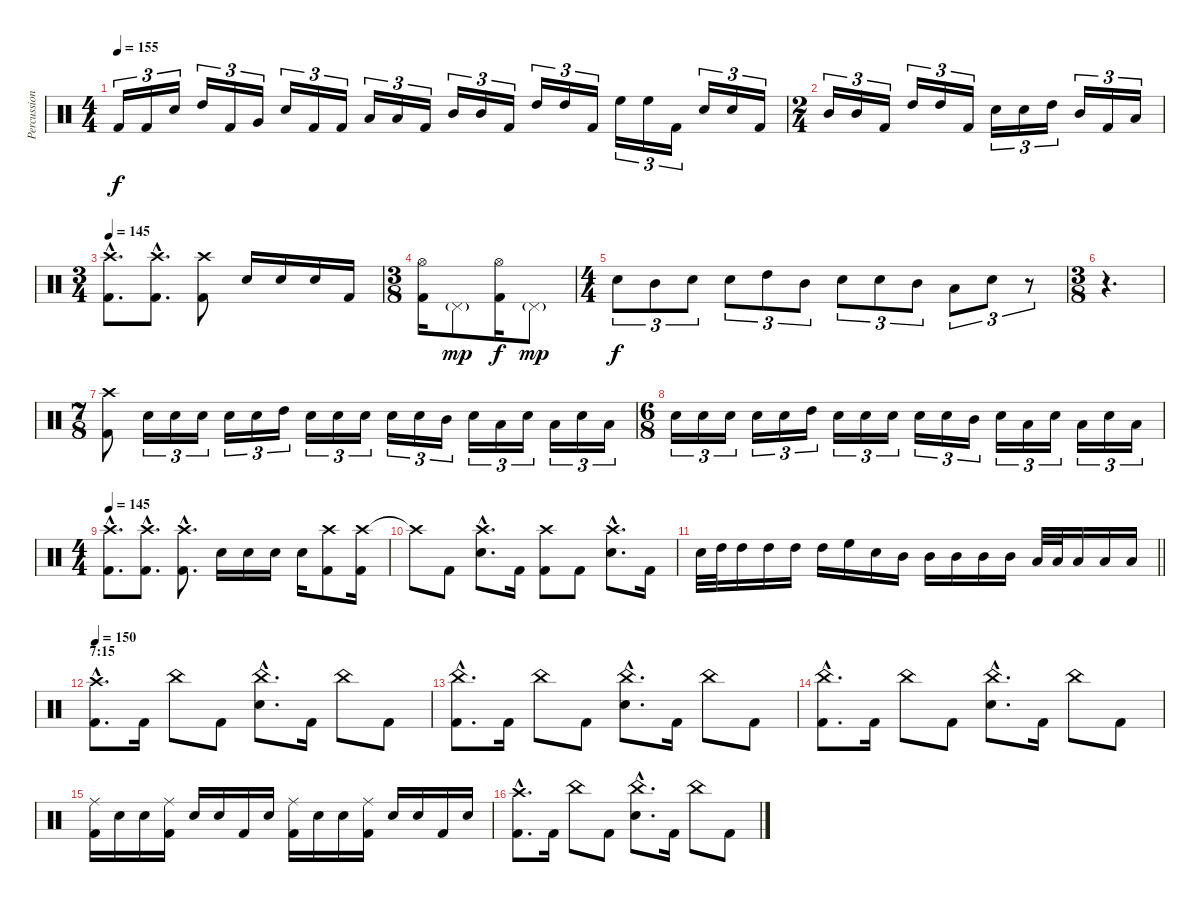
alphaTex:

\track ("Percussion" "Percussion") {instrument percussion}
\staff {score}
\articulation defaults
\ts (4 4)
\tempo 155
\clef neutral
\ks c "Kick (hit) 2".16{tu (3 2) dy f} "Kick (hit) 2".16{tu (3 2)} "Electric Snare (hit)".16{tu (3 2)} "High Tom (hit)".16{tu (3 2)} "Kick (hit) 2".16{tu (3 2)} "Very Low Tom (hit)".16{tu (3 2)} "Electric Snare (hit)".16{tu (3 2)} "Kick (hit) 2".16{tu (3 2)} "Kick (hit) 2".16{tu (3 2)} "Low Tom (hit)".16{tu (3 2)} "Low Tom (hit)".16{tu (3 2)} "Kick (hit) 2".16{tu (3 2)} "Mid Tom (hit)".16{tu (3 2)} "Mid Tom (hit)".16{tu (3 2)} "Kick (hit) 2".16{tu (3 2)} "High Tom (hit)".16{tu (3 2)} "High Tom (hit)".16{tu (3 2)} "Kick (hit) 2".16{tu (3 2)} "High Floor Tom (hit)".16{tu (3 2)} "High Floor Tom (hit)".16{tu (3 2)} "Kick (hit) 2".16{tu (3 2)} "Electric Snare (hit)".16{tu (3 2)} "Electric Snare (hit)".16{tu (3 2)} "Kick (hit) 2".16{tu (3 2)}
|
\ts (2 4)
"Mid Tom (hit)".16{tu (3 2)} "Mid Tom (hit)".16{tu (3 2)} "Kick (hit) 2".16{tu (3 2)} "High Tom (hit)".16{tu (3 2)} "High Tom (hit)".16{tu (3 2)} "Kick (hit) 2".16{tu (3 2)} "Electric Snare (hit)".16{tu (3 2)} "Electric Snare (hit)".16{tu (3 2)} "High Tom (hit)".16{tu (3 2)} "Mid Tom (hit)".16{tu (3 2)} "Kick (hit) 2".16{tu (3 2)} "Low Tom (hit)".16{tu (3 2)} |
\ts (3 4)
\tempo 145
("Crash high (hit)"{hac} "Kick (hit) 2"{hac}).8{d} ("Crash high (hit)"{hac} "Kick (hit) 2"{hac}).8{d} ("Crash high (hit)" "Kick (hit) 2").8 "Electric Snare (hit)".16 "Electric Snare (hit)".16 "Electric Snare (hit)".16 "Kick (hit) 2".16 |
\ts (3 8)
("Hi-Hat (open)" "Kick (hit) 2").16 "Pedal Hi-Hat (hit)"{g}.8{dy mp} ("Hi-Hat (open)" "Kick (hit) 2").16{dy f} "Pedal Hi-Hat (hit)"{g}.8{dy mp} |
\ts (4 4)
"Electric Snare (hit)".8{tu (3 2) dy f} "Mid Tom (hit)".8{tu (3 2)} "Electric Snare (hit)".8{tu (3 2)} "Electric Snare (hit)".8{tu (3 2)} "High Tom (hit)".8{tu (3 2)} "Mid Tom (hit)".8{tu (3 2)} "Electric Snare (hit)".8{tu (3 2)} "Electric Snare (hit)".8{tu (3 2)} "Mid Tom (hit)".8{tu (3 2)} "Low Tom (hit)".8{tu (3 2)} "Electric Snare (hit)".8{tu (3 2)} r.8{tu (3 2)} |
\ts (3 8)
r.4{d} |
\ts (7 8)
("Crash high (hit)" "Kick (hit) 2").8 "Electric Snare (hit)".16{tu (3 2)} "Electric Snare (hit)".16{tu (3 2)} "Electric Snare (hit)".16{tu (3 2)} "Electric Snare (hit)".16{tu (3 2)} "Electric Snare (hit)".16{tu (3 2)} "High Tom (hit)".16{tu (3 2)} "Electric Snare (hit)".16{tu (3 2)} "Electric Snare (hit)".16{tu (3 2)} "Electric Snare (hit)".16{tu (3 2)} "Electric Snare (hit)".16{tu (3 2)} "Electric Snare (hit)".16{tu (3 2)} "Mid Tom (hit)".16{tu (3 2)} "Electric Snare (hit)".16{tu (3 2)} "Low Tom (hit)".16{tu (3 2)} "Electric Snare (hit)".16{tu (3 2)} "Low Tom (hit)".16{tu (3 2)} "Electric Snare (hit)".16{tu (3 2)} "Low Tom (hit)".16{tu (3 2)} |
\ts (6 8)
"Electric Snare (hit)".16{tu (3 2)} "Electric Snare (hit)".16{tu (3 2)} "Electric Snare (hit)".16{tu (3 2)} "Electric Snare (hit)".16{tu (3 2)} "Electric Snare (hit)".16{tu (3 2)} "High Tom (hit)".16{tu (3 2)} "Electric Snare (hit)".16{tu (3 2)} "Electric Snare (hit)".16{tu (3 2)} "Electric Snare (hit)".16{tu (3 2)} "Electric Snare (hit)".16{tu (3 2)} "Electric Snare (hit)".16{tu (3 2)} "Mid Tom (hit)".16{tu (3 2)} "Electric Snare (hit)".16{tu (3 2)} "Low Tom (hit)".16{tu (3 2)} "Electric Snare (hit)".16{tu (3 2)} "Low Tom (hit)".16{tu (3 2)} "Electric Snare (hit)".16{tu (3 2)} "Low Tom (hit)".16{tu (3 2)} |
\ts (4 4)
\tempo 145
("Crash high (hit)"{hac} "Kick (hit) 2"{hac}).8{d} ("Kick (hit) 2"{hac} "Crash high (hit)"{hac}).8{d} ("Kick (hit) 2"{hac} "Crash high (hit)"{hac}).8{d} "Electric Snare (hit)".16 "Electric Snare (hit)".16 "Electric Snare (hit)".16 "Electric Snare (hit)".16 ("Crash high (hit)" "Kick (hit) 2").8 ("Crash high (hit)" "Kick (hit) 2").16 |
"Crash high (hit)"{t}.8 "Kick (hit) 2".8 ("Crash high (hit)"{hac} "Electric Snare (hit)"{hac}).8{d} "Kick (hit) 2".16 ("Kick (hit) 2" "Crash high (hit)").8 "Kick (hit) 2".8 ("Crash high (hit)"{hac} "Electric Snare (hit)"{hac}).8{d} "Kick (hit) 2".16 |
\barLineRight lightlight "Electric Snare (hit)".32 "High Tom (hit)".32 "High Tom (hit)".16 "High Tom (hit)".16 "High Tom (hit)".16 "High Tom (hit)".16 "High Floor Tom (hit)".16 "Electric Snare (hit)".16 "Mid Tom (hit)".16 "Mid Tom (hit)".16 "Mid Tom (hit)".16 "Mid Tom (hit)".16 "Mid Tom (hit)".16 "Low Tom (hit)".32 "Low Tom (hit)".32 "Low Tom (hit)".16 "Low Tom (hit)".16 "Low Tom (hit)".16
|
\section ("" "7:15")
\tempo 150
("Kick (hit) 2"{hac} "Crash high (hit)"{hac}).8{d} "Kick (hit) 2".16 "China (hit)".8 "Kick (hit) 2".8 ("Electric Snare (hit)"{hac} "China (hit)"{hac}).8{d} "Kick (hit) 2".16 "China (hit)".8 "Kick (hit) 2".8 |
("Kick (hit) 2"{hac} "China (hit)"{hac}).8{d} "Kick (hit) 2".16 "China (hit)".8 "Kick (hit) 2".8 ("Electric Snare (hit)"{hac} "China (hit)"{hac}).8{d} "Kick (hit) 2".16 "China (hit)".8 "Kick (hit) 2".8 |
("Kick (hit) 2"{hac} "China (hit)"{hac}).8{d} "Kick (hit) 2".16 "China (hit)".8 "Kick (hit) 2".8 ("Electric Snare (hit)"{hac} "China (hit)"{hac}).8{d} "Kick (hit) 2".16 "China (hit)".8 "Kick (hit) 2".8 |
("Ride (middle)" "Kick (hit) 2").16 "Electric Snare (hit)".16 "Electric Snare (hit)".16 ("Ride (middle)" "Kick (hit) 2").16 "Electric Snare (hit)".16 "Electric Snare (hit)".16 "Kick (hit) 2".16 "Electric Snare (hit)".16 ("Ride (middle)" "Kick (hit) 2").16 "Electric Snare (hit)".16 "Electric Snare (hit)".16 ("Ride (middle)" "Kick (hit) 2").16 "Electric Snare (hit)".16 "Electric Snare (hit)".16 "Kick (hit) 2".16 "Electric Snare (hit)".16 |
("Kick (hit) 2"{hac} "Crash high (hit)"{hac}).8{d} "Kick (hit) 2".16 "China (hit)".8 "Kick (hit) 2".8 ("Electric Snare (hit)"{hac} "China (hit)"{hac}).8{d} "Kick (hit) 2".16 "China (hit)".8 "Kick (hit) 2".8
